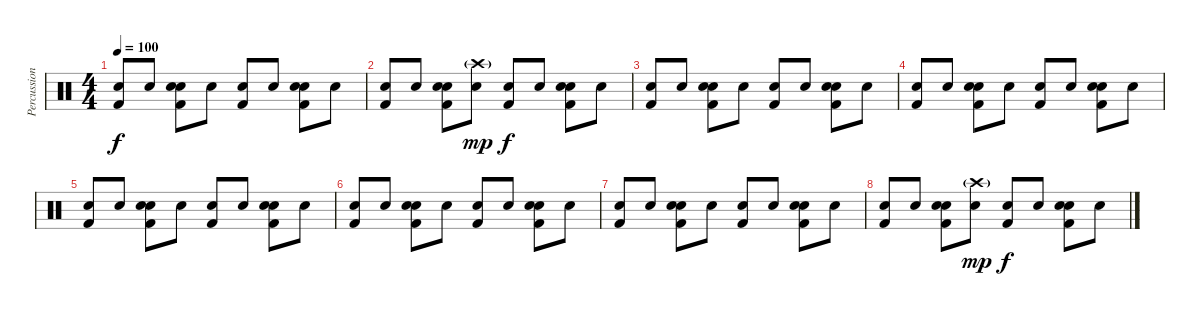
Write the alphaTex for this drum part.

\track ("Percussion" "Percussion") {instrument percussion}
\staff {score}
\articulation defaults
\ts (4 4)
\tempo 100
\clef neutral
\ks c
("Snare (hit) 2" "Kick (hit) 2").8{dy f} "Snare (hit) 2".8 ("Hand Clap (hit)" "Snare (hit) 2" "Kick (hit) 2").8 "Snare (hit) 2".8 ("Snare (hit) 2" "Kick (hit) 2").8 "Snare (hit) 2".8 ("Hand Clap (hit)" "Snare (hit) 2" "Kick (hit) 2").8 "Snare (hit) 2".8 |
("Snare (hit) 2" "Kick (hit) 2").8 "Snare (hit) 2".8 ("Hand Clap (hit)" "Snare (hit) 2" "Kick (hit) 2").8 ("Crash high (hit)"{g} "Snare (hit) 2").8{dy mp} ("Snare (hit) 2" "Kick (hit) 2").8{dy f} "Snare (hit) 2".8 ("Hand Clap (hit)" "Snare (hit) 2" "Kick (hit) 2").8 "Snare (hit) 2".8 |
("Snare (hit) 2" "Kick (hit) 2").8 "Snare (hit) 2".8 ("Hand Clap (hit)" "Snare (hit) 2" "Kick (hit) 2").8 "Snare (hit) 2".8 ("Snare (hit) 2" "Kick (hit) 2").8 "Snare (hit) 2".8 ("Hand Clap (hit)" "Snare (hit) 2" "Kick (hit) 2").8 "Snare (hit) 2".8 |
("Snare (hit) 2" "Kick (hit) 2").8 "Snare (hit) 2".8 ("Hand Clap (hit)" "Snare (hit) 2" "Kick (hit) 2").8 "Snare (hit) 2".8 ("Snare (hit) 2" "Kick (hit) 2").8 "Snare (hit) 2".8 ("Hand Clap (hit)" "Snare (hit) 2" "Kick (hit) 2").8 "Snare (hit) 2".8 |
("Snare (hit) 2" "Kick (hit) 2").8 "Snare (hit) 2".8 ("Hand Clap (hit)" "Snare (hit) 2" "Kick (hit) 2").8 "Snare (hit) 2".8 ("Snare (hit) 2" "Kick (hit) 2").8 "Snare (hit) 2".8 ("Hand Clap (hit)" "Snare (hit) 2" "Kick (hit) 2").8 "Snare (hit) 2".8 |
("Snare (hit) 2" "Kick (hit) 2").8 "Snare (hit) 2".8 ("Hand Clap (hit)" "Snare (hit) 2" "Kick (hit) 2").8 "Snare (hit) 2".8 ("Snare (hit) 2" "Kick (hit) 2").8 "Snare (hit) 2".8 ("Hand Clap (hit)" "Snare (hit) 2" "Kick (hit) 2").8 "Snare (hit) 2".8 |
("Snare (hit) 2" "Kick (hit) 2").8 "Snare (hit) 2".8 ("Hand Clap (hit)" "Snare (hit) 2" "Kick (hit) 2").8 "Snare (hit) 2".8 ("Snare (hit) 2" "Kick (hit) 2").8 "Snare (hit) 2".8 ("Hand Clap (hit)" "Snare (hit) 2" "Kick (hit) 2").8 "Snare (hit) 2".8 |
("Snare (hit) 2" "Kick (hit) 2").8 "Snare (hit) 2".8 ("Hand Clap (hit)" "Snare (hit) 2" "Kick (hit) 2").8 ("Crash high (hit)"{g} "Snare (hit) 2").8{dy mp} ("Snare (hit) 2" "Kick (hit) 2").8{dy f} "Snare (hit) 2".8 ("Hand Clap (hit)" "Snare (hit) 2" "Kick (hit) 2").8 "Snare (hit) 2".8
